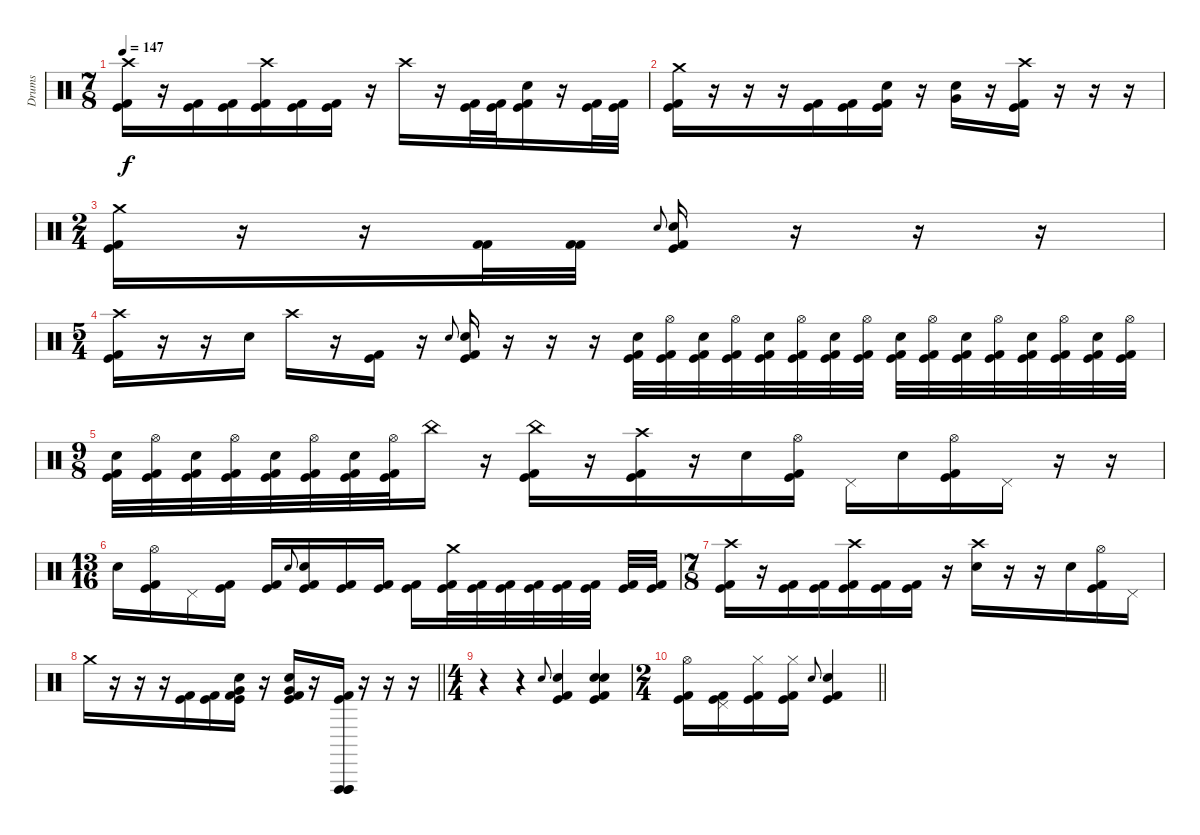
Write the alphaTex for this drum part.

\track ("Drums" "Drums") {instrument percussion}
\staff {score}
\articulation defaults
\ts (7 8)
\tempo 147
\clef neutral
\ks c
("Crash high (hit)" "Kick (hit)" "Kick (hit) 2").16{dy f} r.16 ("Kick (hit)" "Kick (hit) 2").16 ("Kick (hit)" "Kick (hit) 2").16 ("Crash high (hit)" "Kick (hit)" "Kick (hit) 2").16 ("Kick (hit)" "Kick (hit) 2").16 ("Kick (hit)" "Kick (hit) 2").16 r.16 "Crash high (hit)".16 r.16 ("Kick (hit)" "Kick (hit) 2").32 ("Kick (hit)" "Kick (hit) 2").32 ("Electric Snare (hit)" "Kick (hit)" "Kick (hit) 2").16 r.16 ("Kick (hit)" "Kick (hit) 2").32 ("Kick (hit)" "Kick (hit) 2").32 |
("Crash medium (hit)" "Kick (hit)" "Kick (hit) 2").16 r.16 r.16 r.16 ("Kick (hit)" "Kick (hit) 2").16 ("Kick (hit)" "Kick (hit) 2").16 ("Electric Snare (hit)" "Kick (hit)" "Kick (hit) 2").16 r.16 ("Electric Snare (hit)" "Very Low Tom (hit)").16 r.16 ("Crash high (hit)" "Kick (hit)" "Kick (hit) 2").16 r.16 r.16 r.16 |
\ts (2 4)
("Crash medium (hit)" "Kick (hit)" "Kick (hit) 2").16 r.16 r.16 ("Kick (hit) 2" "Kick (hit) 2").32 ("Kick (hit) 2" "Kick (hit) 2").32 "Electric Snare (hit)".8{gr onbeat} ("Electric Snare (hit)" "Kick (hit)" "Kick (hit) 2").16 r.16 r.16 r.16 |
\ts (5 4)
("Crash high (hit)" "Kick (hit)" "Kick (hit) 2").16 r.16 r.16 "Electric Snare (hit)".16 "Crash high (hit)".16 r.16 ("Kick (hit)" "Kick (hit) 2").16 r.16 "Electric Snare (hit)".8{gr onbeat} ("Electric Snare (hit)" "Kick (hit)" "Kick (hit) 2").16 r.16 r.16 r.16 ("Electric Snare (hit)" "Kick (hit)" "Kick (hit) 2").32 ("Hi-Hat (open)" "Kick (hit)" "Kick (hit) 2").32 ("Electric Snare (hit)" "Kick (hit)" "Kick (hit) 2").32 ("Hi-Hat (open)" "Kick (hit)" "Kick (hit) 2").32 ("Electric Snare (hit)" "Kick (hit)" "Kick (hit) 2").32 ("Hi-Hat (open)" "Kick (hit)" "Kick (hit) 2").32 ("Electric Snare (hit)" "Kick (hit)" "Kick (hit) 2").32 ("Hi-Hat (open)" "Kick (hit)" "Kick (hit) 2").32 ("Electric Snare (hit)" "Kick (hit)" "Kick (hit) 2").32 ("Hi-Hat (open)" "Kick (hit)" "Kick (hit) 2").32 ("Electric Snare (hit)" "Kick (hit)" "Kick (hit) 2").32 ("Hi-Hat (open)" "Kick (hit)" "Kick (hit) 2").32 ("Electric Snare (hit)" "Kick (hit)" "Kick (hit) 2").32 ("Hi-Hat (open)" "Kick (hit)" "Kick (hit) 2").32 ("Electric Snare (hit)" "Kick (hit)" "Kick (hit) 2").32 ("Hi-Hat (open)" "Kick (hit)" "Kick (hit) 2").32 |
\ts (9 8)
("Electric Snare (hit)" "Kick (hit)" "Kick (hit) 2").32 ("Hi-Hat (open)" "Kick (hit)" "Kick (hit) 2").32 ("Electric Snare (hit)" "Kick (hit)" "Kick (hit) 2").32 ("Hi-Hat (open)" "Kick (hit)" "Kick (hit) 2").32 ("Electric Snare (hit)" "Kick (hit)" "Kick (hit) 2").32 ("Hi-Hat (open)" "Kick (hit)" "Kick (hit) 2").32 ("Electric Snare (hit)" "Kick (hit)" "Kick (hit) 2").32 ("Hi-Hat (open)" "Kick (hit)" "Kick (hit) 2").32 "China (hit)".16 r.16 ("China (hit)" "Kick (hit)" "Kick (hit) 2").16 r.16 ("Crash high (hit)" "Kick (hit)" "Kick (hit) 2").16 r.16 "Electric Snare (hit)".16 ("Hi-Hat (open)" "Kick (hit)" "Kick (hit) 2").16 "Pedal Hi-Hat (hit)".16 "Electric Snare (hit)".16 ("Hi-Hat (open)" "Kick (hit)" "Kick (hit) 2").16 "Pedal Hi-Hat (hit)".16 r.16 r.16 |
\ts (13 16)
"Electric Snare (hit)".16 ("Hi-Hat (open)" "Kick (hit)" "Kick (hit) 2").16 "Pedal Hi-Hat (hit)".16 ("Kick (hit)" "Kick (hit) 2").16 ("Kick (hit)" "Kick (hit) 2").16 "Electric Snare (hit)".8{gr onbeat} ("Electric Snare (hit)" "Kick (hit)" "Kick (hit) 2").16 ("Kick (hit)" "Kick (hit) 2").16 ("Kick (hit)" "Kick (hit) 2").16 ("Kick (hit)" "Kick (hit) 2").16 ("Crash medium (hit)" "Kick (hit)" "Kick (hit) 2").32 ("Kick (hit)" "Kick (hit) 2").32 ("Kick (hit)" "Kick (hit) 2").32 ("Kick (hit)" "Kick (hit) 2").32 ("Kick (hit)" "Kick (hit) 2").32 ("Kick (hit)" "Kick (hit) 2").32 ("Kick (hit)" "Kick (hit) 2").32 ("Kick (hit)" "Kick (hit) 2").32 |
\ts (7 8)
("Crash high (hit)" "Kick (hit)" "Kick (hit) 2").16 r.16 ("Kick (hit)" "Kick (hit) 2").16 ("Kick (hit)" "Kick (hit) 2").16 ("Crash high (hit)" "Kick (hit)" "Kick (hit) 2").16 ("Kick (hit)" "Kick (hit) 2").16 ("Kick (hit)" "Kick (hit) 2").16 r.16 ("Crash high (hit)" "Electric Snare (hit)").16 r.16 r.16 "Electric Snare (hit)".16 ("Hi-Hat (open)" "Kick (hit)" "Kick (hit) 2").16 "Pedal Hi-Hat (hit)".16 |
\barLineRight lightlight "Crash medium (hit)".16
r.16 r.16 r.16 ("Kick (hit)" "Kick (hit) 2").16 ("Kick (hit)" "Kick (hit) 2").16 ("Electric Snare (hit)" "Very Low Tom (hit)" "Kick (hit)" "Kick (hit) 2").16 r.16 ("Electric Snare (hit)" "Very Low Tom (hit)" "Kick (hit)" "Kick (hit) 2").16 r.16 ("Vibraslap (hit)" "Vibraslap (hit)" "Vibraslap (hit)" "Kick (hit)" "Kick (hit) 2").16 r.16 r.16 r.16 |
\ts (4 4)
r.4 r.4 "Electric Snare (hit)".8{gr onbeat} ("Electric Snare (hit)" "Kick (hit)" "Kick (hit) 2").4 ("Electric Snare (hit)" "Electric Snare (hit)" "Kick (hit)" "Kick (hit) 2").4 |
\ts (2 4)
\barLineRight lightlight
("Hi-Hat (open)" "Kick (hit)" "Kick (hit) 2").16 ("Pedal Hi-Hat (hit)" "Kick (hit)" "Kick (hit) 2").16 ("Hi-Hat (closed)" "Kick (hit)" "Kick (hit) 2").16 ("Hi-Hat (closed)" "Kick (hit)" "Kick (hit) 2").16 "Electric Snare (hit)".8{gr onbeat} ("Electric Snare (hit)" "Kick (hit)" "Kick (hit) 2").4
